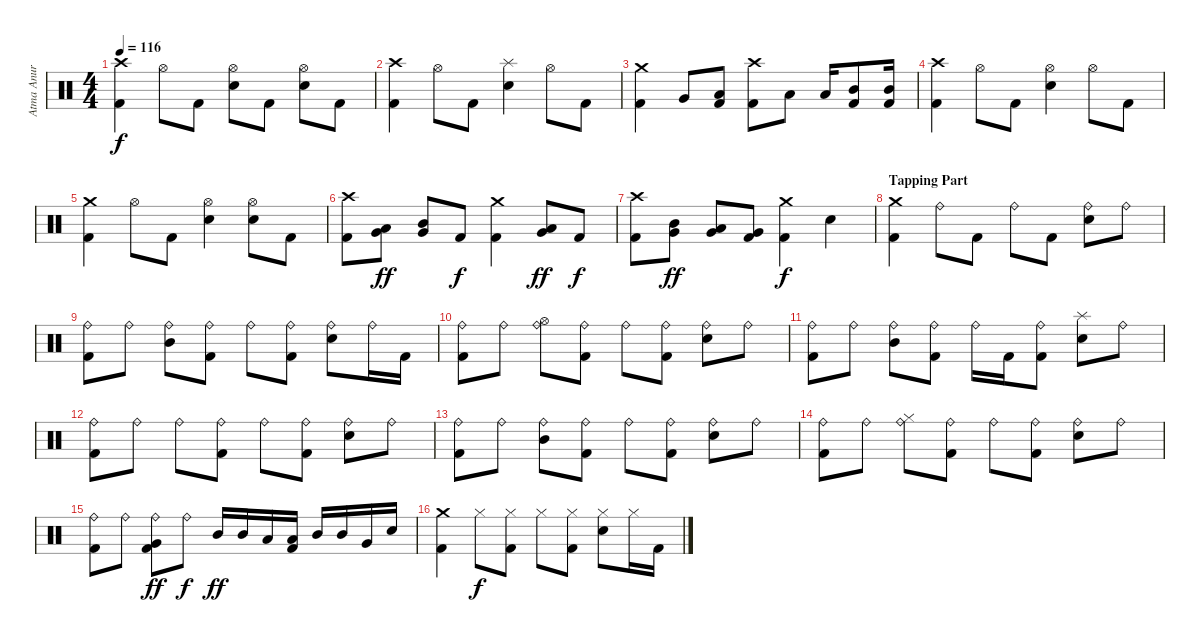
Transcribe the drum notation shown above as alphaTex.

\track ("Atma Anur " "Atma Anur ") {instrument percussion}
\staff {score}
\articulation defaults
\ts (4 4)
\tempo 116
\clef neutral
\ks c
("Crash high (hit)" "Kick (hit) 2").4{dy f} "Hi-Hat (open)".8 "Kick (hit) 2".8 ("Hi-Hat (open)" "Snare (hit) 2").8 "Kick (hit) 2".8 ("Hi-Hat (open)" "Snare (hit) 2").8 "Kick (hit) 2".8 |
("Crash high (hit)" "Kick (hit) 2").4 "Hi-Hat (open)".8 "Kick (hit) 2".8 ("Splash (hit)" "Snare (hit) 2").4 "Hi-Hat (open)".8 "Kick (hit) 2".8 |
("Crash medium (hit)" "Kick (hit) 2").4 "Very Low Tom (hit)".8 ("Low Tom (hit)" "Kick (hit) 2").8 ("Crash high (hit)" "Kick (hit) 2").8 "Low Tom (hit)".8 "Low Tom (hit)".16 ("Mid Tom (hit)" "Kick (hit) 2").8 ("Mid Tom (hit)" "Kick (hit) 2").16 |
("Crash high (hit)" "Kick (hit) 2").4 "Hi-Hat (open)".8 "Kick (hit) 2".8 ("Hi-Hat (open)" "Snare (hit) 2").4 "Hi-Hat (open)".8 "Kick (hit) 2".8 |
("Crash medium (hit)" "Kick (hit) 2").4 "Hi-Hat (open)".8 "Kick (hit) 2".8 ("Hi-Hat (open)" "Snare (hit) 2").4 ("Hi-Hat (open)" "Snare (hit) 2").8 "Kick (hit) 2".8 |
("Crash high (hit)" "Kick (hit) 2").8 ("Low Tom (hit)" "Very Low Tom (hit)").8{dy ff} ("Mid Tom (hit)" "Very Low Tom (hit)").8 "Kick (hit) 2".8{dy f} ("Crash medium (hit)" "Kick (hit) 2").4 ("Low Tom (hit)" "Very Low Tom (hit)").8{dy ff} "Kick (hit) 2".8{dy f} |
("Crash high (hit)" "Kick (hit) 2").8 ("Mid Tom (hit)" "Very Low Tom (hit)").8{dy ff} ("Low Tom (hit)" "Very Low Tom (hit)").8 ("Very Low Tom (hit)" "Kick (hit) 2").8 ("Crash medium (hit)" "Kick (hit) 2").4{dy f} "Snare (hit) 2".4 |
\section ("" "Tapping Part")
("Crash medium (hit)" "Kick (hit) 2").4 "Ride (bell)".8 "Kick (hit) 2".8 "Ride (bell)".8 "Kick (hit) 2".8 ("Ride (bell)" "Snare (hit) 2").8 "Ride (bell)".8 |
("Ride (bell)" "Kick (hit) 2").8 "Ride (bell)".8 ("Ride (bell)" "Mid Tom (hit)").8 ("Ride (bell)" "Kick (hit) 2").8 "Ride (bell)".8 ("Ride (bell)" "Kick (hit) 2").8 ("Ride (bell)" "Snare (hit) 2").8 "Ride (bell)".16 "Kick (hit) 2".16 |
("Ride (bell)" "Kick (hit) 2").8 "Ride (bell)".8 ("Ride (bell)" "Hi-Hat (open)").8 ("Ride (bell)" "Kick (hit) 2").8 "Ride (bell)".8 ("Ride (bell)" "Kick (hit) 2").8 ("Ride (bell)" "Snare (hit) 2").8 "Ride (bell)".8 |
("Ride (bell)" "Kick (hit) 2").8 "Ride (bell)".8 ("Ride (bell)" "Mid Tom (hit)").8 ("Ride (bell)" "Kick (hit) 2").8 "Ride (bell)".16 "Kick (hit) 2".16 ("Ride (bell)" "Kick (hit) 2").8 ("Splash (hit)" "Snare (hit) 2").8 "Ride (bell)".8 |
("Ride (bell)" "Kick (hit) 2").8 "Ride (bell)".8 "Ride (bell)".8 ("Ride (bell)" "Kick (hit) 2").8 "Ride (bell)".8 ("Ride (bell)" "Kick (hit) 2").8 ("Ride (bell)" "Snare (hit) 2").8 "Ride (bell)".8 |
("Ride (bell)" "Kick (hit) 2").8 "Ride (bell)".8 ("Ride (bell)" "Mid Tom (hit)").8 ("Ride (bell)" "Kick (hit) 2").8 "Ride (bell)".8 ("Ride (bell)" "Kick (hit) 2").8 ("Ride (bell)" "Snare (hit) 2").8 "Ride (bell)".8 |
("Ride (bell)" "Kick (hit) 2").8 "Ride (bell)".8 ("Ride (bell)" "Hi-Hat (closed)").8 ("Ride (bell)" "Kick (hit) 2").8 "Ride (bell)".8 ("Ride (bell)" "Kick (hit) 2").8 ("Ride (bell)" "Snare (hit) 2").8 "Ride (bell)".8 |
("Ride (bell)" "Kick (hit) 2").8 "Ride (bell)".8 ("Ride (bell)" "Very Low Tom (hit)" "Kick (hit) 2").8{dy ff} "Ride (bell)".8{dy f} "Mid Tom (hit)".16{dy ff} "Mid Tom (hit)".16 "Low Tom (hit)".16 ("Low Tom (hit)" "Kick (hit) 2").16 "Mid Tom (hit)".16 "Mid Tom (hit)".16 "Very Low Tom (hit)".16 "Metronome (bell)".16 |
("Crash medium (hit)" "Kick (hit) 2").4 "Hi-Hat (closed)".8{dy f} ("Hi-Hat (closed)" "Kick (hit) 2").8 "Hi-Hat (closed)".8 ("Hi-Hat (closed)" "Kick (hit) 2").8 ("Hi-Hat (closed)" "Snare (hit) 2").8 "Hi-Hat (closed)".16 "Kick (hit) 2".16
